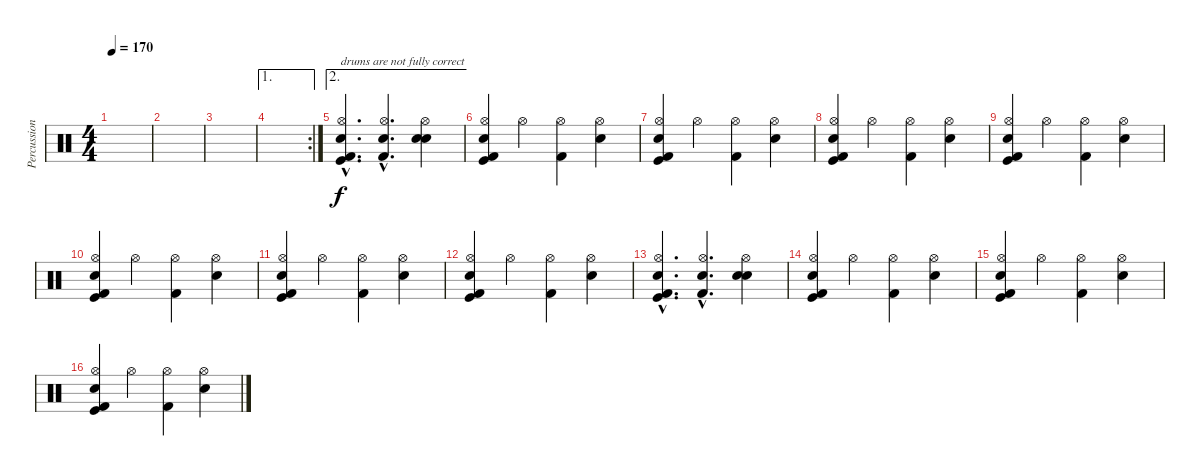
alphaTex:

\track ("Percussion" "Percussion") {instrument percussion}
\staff {score}
\articulation defaults
\ts (4 4)
\tempo 170
\clef neutral
\ks c
|
|
|
\ae 1
\rc 2
|
\ae 2
("Kick (hit) 2"{hac} "Hi-Hat (open)"{hac} "Kick (hit)"{hac} "Snare (hit) 2"{hac}).4{d txt "drums are not fully correct"} ("Kick (hit) 2"{hac} "Hi-Hat (open)"{hac} "Snare (hit) 2"{hac}).4{d} ("Electric Snare (hit)" "Hi-Hat (open)" "Snare (hit) 2").4 |
("Kick (hit) 2" "Hi-Hat (open)" "Kick (hit)" "Snare (hit) 2").4 "Hi-Hat (open)".4 ("Kick (hit) 2" "Hi-Hat (open)").4 ("Electric Snare (hit)" "Hi-Hat (open)").4 |
("Kick (hit) 2" "Hi-Hat (open)" "Kick (hit)" "Snare (hit) 2").4 "Hi-Hat (open)".4 ("Kick (hit) 2" "Hi-Hat (open)").4 ("Electric Snare (hit)" "Hi-Hat (open)").4 |
("Kick (hit) 2" "Hi-Hat (open)" "Kick (hit)" "Snare (hit) 2").4 "Hi-Hat (open)".4 ("Kick (hit) 2" "Hi-Hat (open)").4 ("Electric Snare (hit)" "Hi-Hat (open)").4 |
("Kick (hit) 2" "Hi-Hat (open)" "Kick (hit)" "Snare (hit) 2").4 "Hi-Hat (open)".4 ("Kick (hit) 2" "Hi-Hat (open)").4 ("Electric Snare (hit)" "Hi-Hat (open)").4 |
("Kick (hit) 2" "Hi-Hat (open)" "Kick (hit)" "Snare (hit) 2").4 "Hi-Hat (open)".4 ("Kick (hit) 2" "Hi-Hat (open)").4 ("Electric Snare (hit)" "Hi-Hat (open)").4 |
("Kick (hit) 2" "Hi-Hat (open)" "Kick (hit)" "Snare (hit) 2").4 "Hi-Hat (open)".4 ("Kick (hit) 2" "Hi-Hat (open)").4 ("Electric Snare (hit)" "Hi-Hat (open)").4 |
("Kick (hit) 2" "Hi-Hat (open)" "Kick (hit)" "Snare (hit) 2").4 "Hi-Hat (open)".4 ("Kick (hit) 2" "Hi-Hat (open)").4 ("Electric Snare (hit)" "Hi-Hat (open)").4 |
("Kick (hit) 2"{hac} "Hi-Hat (open)"{hac} "Kick (hit)"{hac} "Snare (hit) 2"{hac}).4{d} ("Kick (hit) 2"{hac} "Hi-Hat (open)"{hac} "Snare (hit) 2"{hac}).4{d} ("Electric Snare (hit)" "Hi-Hat (open)" "Snare (hit) 2").4 |
("Kick (hit) 2" "Hi-Hat (open)" "Kick (hit)" "Snare (hit) 2").4 "Hi-Hat (open)".4 ("Kick (hit) 2" "Hi-Hat (open)").4 ("Electric Snare (hit)" "Hi-Hat (open)").4 |
("Kick (hit) 2" "Hi-Hat (open)" "Kick (hit)" "Snare (hit) 2").4 "Hi-Hat (open)".4 ("Kick (hit) 2" "Hi-Hat (open)").4 ("Electric Snare (hit)" "Hi-Hat (open)").4 |
("Kick (hit) 2" "Hi-Hat (open)" "Kick (hit)" "Snare (hit) 2").4 "Hi-Hat (open)".4 ("Kick (hit) 2" "Hi-Hat (open)").4 ("Electric Snare (hit)" "Hi-Hat (open)").4
